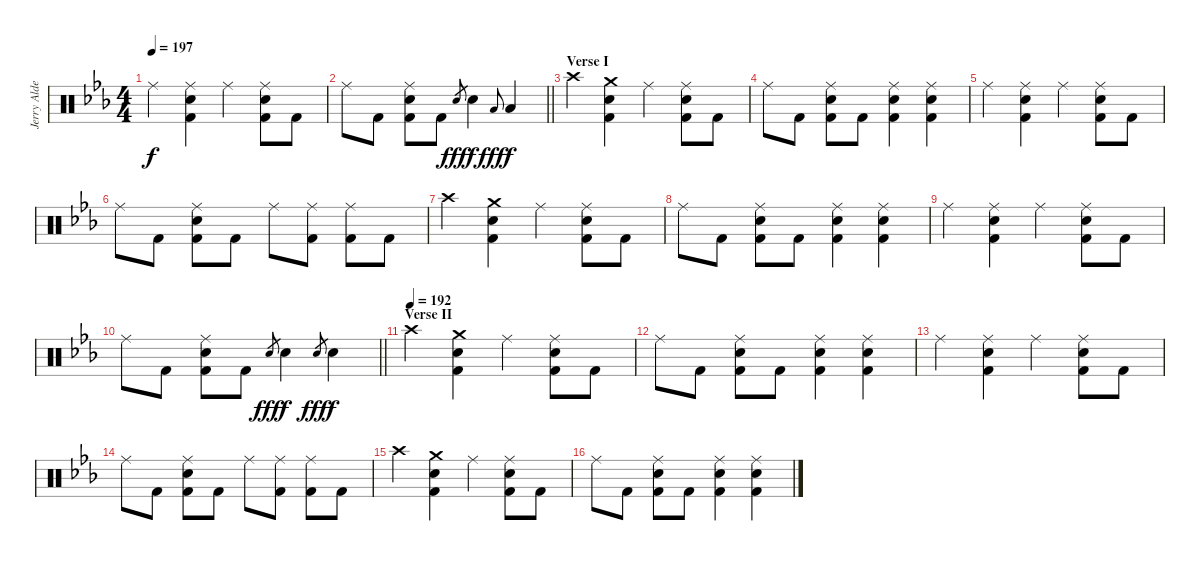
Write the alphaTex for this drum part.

\track ("Jerry Alder - Drums" "Jerry Alde") {instrument percussion}
\staff {score}
\articulation defaults
\ts (4 4)
\tempo 197
\clef neutral
\ks eb "Ride (middle)".4{dy f}
("Ride (middle)" "Snare (hit) 2" "Kick (hit) 2").4 "Ride (middle)".4 ("Ride (middle)" "Snare (hit) 2" "Kick (hit) 2").8 "Kick (hit) 2".8 |
\barLineRight lightlight "Ride (middle)".8 "Kick (hit) 2".8
("Ride (middle)" "Snare (hit) 2" "Kick (hit) 2").8 "Kick (hit) 2".8 "Snare (hit) 2".8{gr dy fff} "Snare (hit) 2".4{dy f} "Low Tom (hit)".8{gr onbeat dy fff} "Low Tom (hit)".4{dy f} |
\section ("" "Verse I")
"Crash high (hit)".4 ("Crash medium (hit)" "Snare (hit) 2" "Kick (hit) 2").4 "Ride (middle)".4 ("Ride (middle)" "Snare (hit) 2" "Kick (hit) 2").8 "Kick (hit) 2".8 |
"Ride (middle)".8 "Kick (hit) 2".8 ("Ride (middle)" "Snare (hit) 2" "Kick (hit) 2").8 "Kick (hit) 2".8 ("Ride (middle)" "Snare (hit) 2" "Kick (hit) 2").4 ("Ride (middle)" "Snare (hit) 2" "Kick (hit) 2").4 |
"Ride (middle)".4 ("Ride (middle)" "Snare (hit) 2" "Kick (hit) 2").4 "Ride (middle)".4 ("Ride (middle)" "Snare (hit) 2" "Kick (hit) 2").8 "Kick (hit) 2".8 |
"Ride (middle)".8 "Kick (hit) 2".8 ("Ride (middle)" "Snare (hit) 2" "Kick (hit) 2").8 "Kick (hit) 2".8 "Ride (middle)".8 ("Ride (middle)" "Kick (hit) 2").8 ("Ride (middle)" "Kick (hit) 2").8 "Kick (hit) 2".8 |
"Crash high (hit)".4 ("Crash medium (hit)" "Snare (hit) 2" "Kick (hit) 2").4 "Ride (middle)".4 ("Ride (middle)" "Snare (hit) 2" "Kick (hit) 2").8 "Kick (hit) 2".8 |
"Ride (middle)".8 "Kick (hit) 2".8 ("Ride (middle)" "Snare (hit) 2" "Kick (hit) 2").8 "Kick (hit) 2".8 ("Ride (middle)" "Snare (hit) 2" "Kick (hit) 2").4 ("Ride (middle)" "Snare (hit) 2" "Kick (hit) 2").4 |
"Ride (middle)".4 ("Ride (middle)" "Snare (hit) 2" "Kick (hit) 2").4 "Ride (middle)".4 ("Ride (middle)" "Snare (hit) 2" "Kick (hit) 2").8 "Kick (hit) 2".8 |
\barLineRight lightlight "Ride (middle)".8 "Kick (hit) 2".8
("Ride (middle)" "Snare (hit) 2" "Kick (hit) 2").8 "Kick (hit) 2".8 "Snare (hit) 2".8{gr dy fff} "Snare (hit) 2".4{dy f} "Snare (hit) 2".8{gr dy fff} "Snare (hit) 2".4{dy f} |
\section ("" "Verse II")
\tempo (192)
"Crash high (hit)".4 ("Crash medium (hit)" "Snare (hit) 2" "Kick (hit) 2").4 "Ride (middle)".4 ("Ride (middle)" "Snare (hit) 2" "Kick (hit) 2").8 "Kick (hit) 2".8 |
"Ride (middle)".8 "Kick (hit) 2".8 ("Ride (middle)" "Snare (hit) 2" "Kick (hit) 2").8 "Kick (hit) 2".8 ("Ride (middle)" "Snare (hit) 2" "Kick (hit) 2").4 ("Ride (middle)" "Snare (hit) 2" "Kick (hit) 2").4 |
"Ride (middle)".4 ("Ride (middle)" "Snare (hit) 2" "Kick (hit) 2").4 "Ride (middle)".4 ("Ride (middle)" "Snare (hit) 2" "Kick (hit) 2").8 "Kick (hit) 2".8 |
"Ride (middle)".8 "Kick (hit) 2".8 ("Ride (middle)" "Snare (hit) 2" "Kick (hit) 2").8 "Kick (hit) 2".8 "Ride (middle)".8 ("Ride (middle)" "Kick (hit) 2").8 ("Ride (middle)" "Kick (hit) 2").8 "Kick (hit) 2".8 |
"Crash high (hit)".4 ("Crash medium (hit)" "Snare (hit) 2" "Kick (hit) 2").4 "Ride (middle)".4 ("Ride (middle)" "Snare (hit) 2" "Kick (hit) 2").8 "Kick (hit) 2".8 |
"Ride (middle)".8 "Kick (hit) 2".8 ("Ride (middle)" "Snare (hit) 2" "Kick (hit) 2").8 "Kick (hit) 2".8 ("Ride (middle)" "Snare (hit) 2" "Kick (hit) 2").4 ("Ride (middle)" "Snare (hit) 2" "Kick (hit) 2").4
